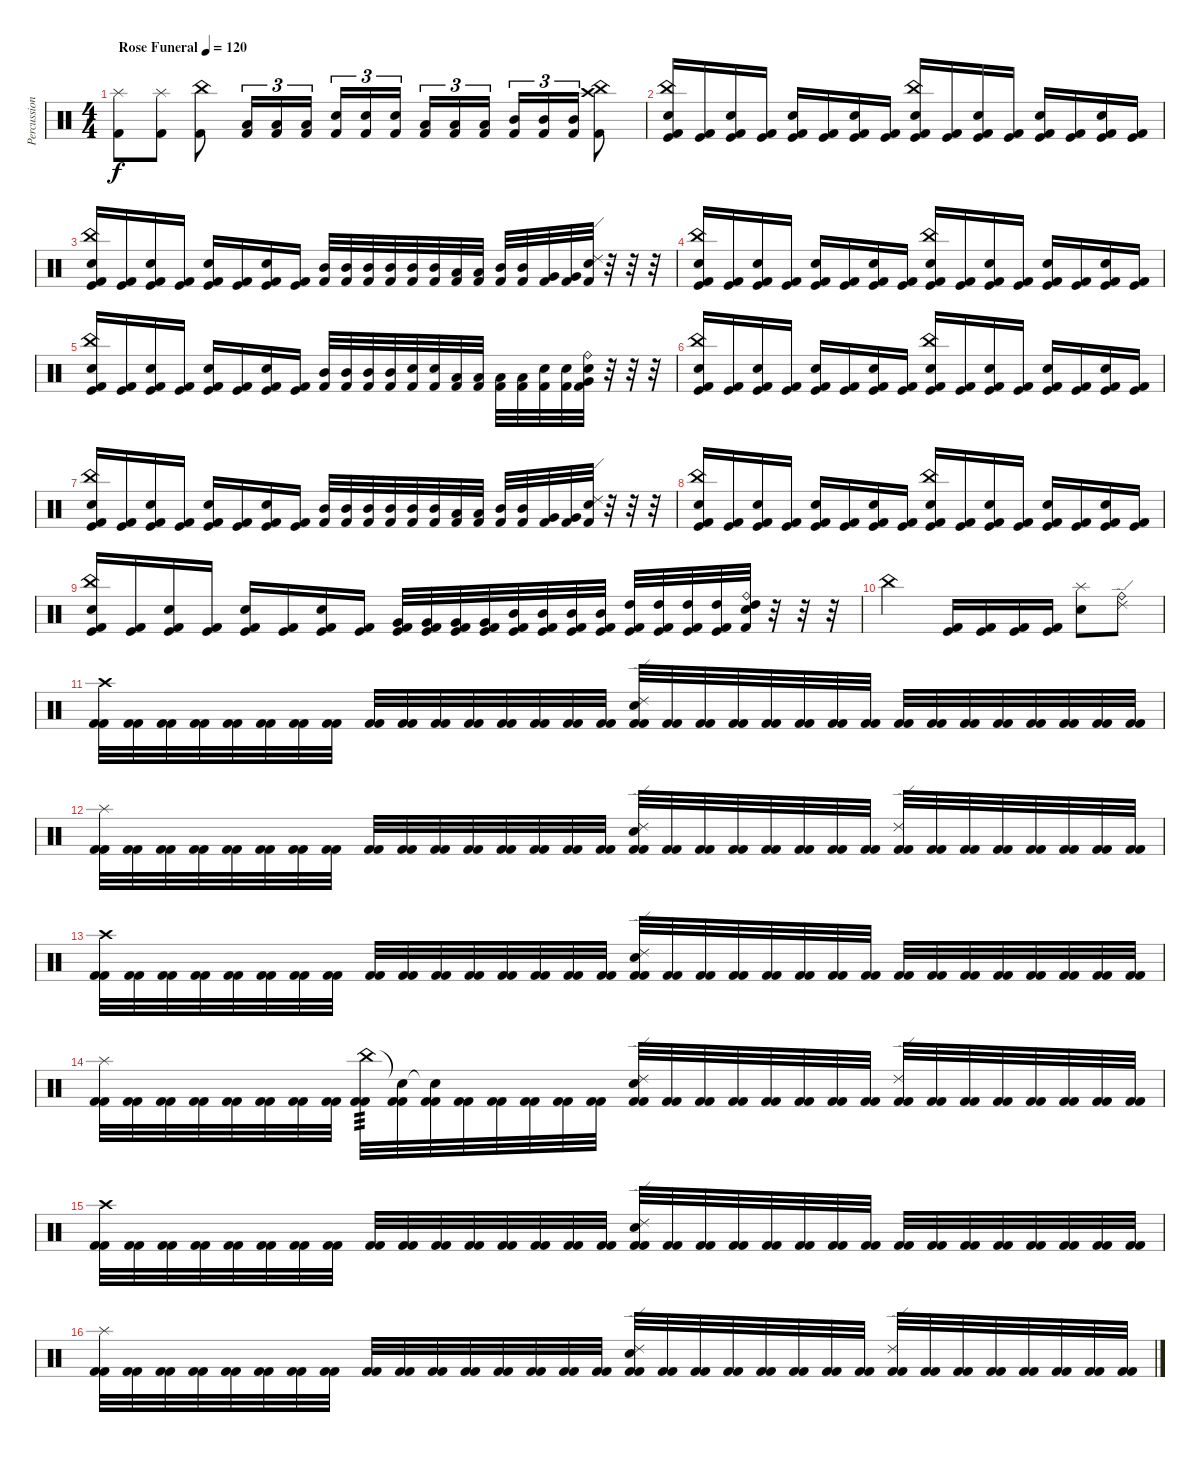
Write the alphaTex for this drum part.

\track ("Percussion" "Percussion") {instrument percussion}
\staff {score}
\articulation defaults
\ts (4 4)
\tempo (120 "Rose Funeral")
\clef neutral
\ks c
("Splash (hit)" "Kick (hit) 2").8{dy f} ("Splash (hit)" "Kick (hit) 2").8 ("China (hit)" "Kick (hit) 2").8 ("Low Tom (hit)" "Kick (hit) 2").16{tu (3 2)} ("Low Tom (hit)" "Kick (hit) 2").16{tu (3 2)} ("Low Tom (hit)" "Kick (hit) 2").16{tu (3 2)} ("Electric Snare (hit)" "Kick (hit) 2").16{tu (3 2)} ("Electric Snare (hit)" "Kick (hit) 2").16{tu (3 2)} ("Electric Snare (hit)" "Kick (hit) 2").16{tu (3 2) beam splitsecondary} ("Low Tom (hit)" "Kick (hit) 2").16{tu (3 2)} ("Low Tom (hit)" "Kick (hit) 2").16{tu (3 2)} ("Low Tom (hit)" "Kick (hit) 2").16{tu (3 2)} ("Mid Tom (hit)" "Kick (hit) 2").16{tu (3 2)} ("Mid Tom (hit)" "Kick (hit) 2").16{tu (3 2)} ("Mid Tom (hit)" "Kick (hit) 2").16{tu (3 2)} ("China (hit)" "Crash high (hit)" "Kick (hit) 2").8 |
("China (hit)" "Electric Snare (hit)" "Kick (hit)" "Kick (hit) 2").16 ("Kick (hit)" "Kick (hit) 2").16 ("Electric Snare (hit)" "Kick (hit)" "Kick (hit) 2").16 ("Kick (hit)" "Kick (hit) 2").16 ("Electric Snare (hit)" "Kick (hit)" "Kick (hit) 2").16 ("Kick (hit)" "Kick (hit) 2").16 ("Electric Snare (hit)" "Kick (hit)" "Kick (hit) 2").16 ("Kick (hit)" "Kick (hit) 2").16 ("China (hit)" "Electric Snare (hit)" "Kick (hit)" "Kick (hit) 2").16 ("Kick (hit)" "Kick (hit) 2").16 ("Electric Snare (hit)" "Kick (hit)" "Kick (hit) 2").16 ("Kick (hit)" "Kick (hit) 2").16 ("Electric Snare (hit)" "Kick (hit)" "Kick (hit) 2").16 ("Kick (hit)" "Kick (hit) 2").16 ("Electric Snare (hit)" "Kick (hit)" "Kick (hit) 2").16 ("Kick (hit)" "Kick (hit) 2").16 |
("China (hit)" "Electric Snare (hit)" "Kick (hit)" "Kick (hit) 2").16 ("Kick (hit)" "Kick (hit) 2").16 ("Electric Snare (hit)" "Kick (hit)" "Kick (hit) 2").16 ("Kick (hit)" "Kick (hit) 2").16 ("Electric Snare (hit)" "Kick (hit)" "Kick (hit) 2").16 ("Kick (hit)" "Kick (hit) 2").16 ("Electric Snare (hit)" "Kick (hit)" "Kick (hit) 2").16 ("Kick (hit)" "Kick (hit) 2").16 ("Mid Tom (hit)" "Kick (hit) 2").32 ("Mid Tom (hit)" "Kick (hit) 2").32 ("Mid Tom (hit)" "Kick (hit) 2").32 ("Mid Tom (hit)" "Kick (hit) 2").32 ("Mid Tom (hit)" "Kick (hit) 2").32 ("Mid Tom (hit)" "Kick (hit) 2").32 ("Low Tom (hit)" "Kick (hit) 2").32 ("Low Tom (hit)" "Kick (hit) 2").32 ("Mid Tom (hit)" "Kick (hit) 2").32 ("Mid Tom (hit)" "Kick (hit) 2").32 ("Very Low Tom (hit)" "Kick (hit) 2").32 ("Very Low Tom (hit)" "Kick (hit) 2").32 ("Ride (edge) 2" "Electric Snare (hit)" "Kick (hit) 2").32 r.32 r.32 r.32 |
("China (hit)" "Electric Snare (hit)" "Kick (hit)" "Kick (hit) 2").16 ("Kick (hit)" "Kick (hit) 2").16 ("Electric Snare (hit)" "Kick (hit)" "Kick (hit) 2").16 ("Kick (hit)" "Kick (hit) 2").16 ("Electric Snare (hit)" "Kick (hit)" "Kick (hit) 2").16 ("Kick (hit)" "Kick (hit) 2").16 ("Electric Snare (hit)" "Kick (hit)" "Kick (hit) 2").16 ("Kick (hit)" "Kick (hit) 2").16 ("China (hit)" "Electric Snare (hit)" "Kick (hit)" "Kick (hit) 2").16 ("Kick (hit)" "Kick (hit) 2").16 ("Electric Snare (hit)" "Kick (hit)" "Kick (hit) 2").16 ("Kick (hit)" "Kick (hit) 2").16 ("Electric Snare (hit)" "Kick (hit)" "Kick (hit) 2").16 ("Kick (hit)" "Kick (hit) 2").16 ("Electric Snare (hit)" "Kick (hit)" "Kick (hit) 2").16 ("Kick (hit)" "Kick (hit) 2").16 |
("China (hit)" "Electric Snare (hit)" "Kick (hit)" "Kick (hit) 2").16 ("Kick (hit)" "Kick (hit) 2").16 ("Electric Snare (hit)" "Kick (hit)" "Kick (hit) 2").16 ("Kick (hit)" "Kick (hit) 2").16 ("Electric Snare (hit)" "Kick (hit)" "Kick (hit) 2").16 ("Kick (hit)" "Kick (hit) 2").16 ("Electric Snare (hit)" "Kick (hit)" "Kick (hit) 2").16 ("Kick (hit)" "Kick (hit) 2").16 ("Mid Tom (hit)" "Kick (hit) 2").32 ("Mid Tom (hit)" "Kick (hit) 2").32 ("Mid Tom (hit)" "Kick (hit) 2").32 ("Mid Tom (hit)" "Kick (hit) 2").32 ("Electric Snare (hit)" "Kick (hit) 2").32 ("Electric Snare (hit)" "Kick (hit) 2").32 ("Low Floor Tom (hit)" "Kick (hit) 2").32 ("Low Floor Tom (hit)" "Kick (hit) 2").32 ("Low Floor Tom (hit)" "Kick (hit) 2").32 ("Low Floor Tom (hit)" "Kick (hit) 2").32 ("Electric Snare (hit)" "Kick (hit) 2").32 ("Electric Snare (hit)" "Kick (hit) 2").32 ("Ride (bell)" "Electric Snare (hit)" "Very Low Tom (hit)" "Kick (hit) 2").32 r.32 r.32 r.32 |
("China (hit)" "Electric Snare (hit)" "Kick (hit)" "Kick (hit) 2").16 ("Kick (hit)" "Kick (hit) 2").16 ("Electric Snare (hit)" "Kick (hit)" "Kick (hit) 2").16 ("Kick (hit)" "Kick (hit) 2").16 ("Electric Snare (hit)" "Kick (hit)" "Kick (hit) 2").16 ("Kick (hit)" "Kick (hit) 2").16 ("Electric Snare (hit)" "Kick (hit)" "Kick (hit) 2").16 ("Kick (hit)" "Kick (hit) 2").16 ("China (hit)" "Electric Snare (hit)" "Kick (hit)" "Kick (hit) 2").16 ("Kick (hit)" "Kick (hit) 2").16 ("Electric Snare (hit)" "Kick (hit)" "Kick (hit) 2").16 ("Kick (hit)" "Kick (hit) 2").16 ("Electric Snare (hit)" "Kick (hit)" "Kick (hit) 2").16 ("Kick (hit)" "Kick (hit) 2").16 ("Electric Snare (hit)" "Kick (hit)" "Kick (hit) 2").16 ("Kick (hit)" "Kick (hit) 2").16 |
("China (hit)" "Electric Snare (hit)" "Kick (hit)" "Kick (hit) 2").16 ("Kick (hit)" "Kick (hit) 2").16 ("Electric Snare (hit)" "Kick (hit)" "Kick (hit) 2").16 ("Kick (hit)" "Kick (hit) 2").16 ("Electric Snare (hit)" "Kick (hit)" "Kick (hit) 2").16 ("Kick (hit)" "Kick (hit) 2").16 ("Electric Snare (hit)" "Kick (hit)" "Kick (hit) 2").16 ("Kick (hit)" "Kick (hit) 2").16 ("Mid Tom (hit)" "Kick (hit) 2").32 ("Mid Tom (hit)" "Kick (hit) 2").32 ("Mid Tom (hit)" "Kick (hit) 2").32 ("Mid Tom (hit)" "Kick (hit) 2").32 ("Mid Tom (hit)" "Kick (hit) 2").32 ("Mid Tom (hit)" "Kick (hit) 2").32 ("Low Tom (hit)" "Kick (hit) 2").32 ("Low Tom (hit)" "Kick (hit) 2").32 ("Mid Tom (hit)" "Kick (hit) 2").32 ("Mid Tom (hit)" "Kick (hit) 2").32 ("Very Low Tom (hit)" "Kick (hit) 2").32 ("Very Low Tom (hit)" "Kick (hit) 2").32 ("Ride (edge) 2" "Electric Snare (hit)" "Kick (hit) 2").32 r.32 r.32 r.32 |
("China (hit)" "Electric Snare (hit)" "Kick (hit)" "Kick (hit) 2").16 ("Kick (hit)" "Kick (hit) 2").16 ("Electric Snare (hit)" "Kick (hit)" "Kick (hit) 2").16 ("Kick (hit)" "Kick (hit) 2").16 ("Electric Snare (hit)" "Kick (hit)" "Kick (hit) 2").16 ("Kick (hit)" "Kick (hit) 2").16 ("Electric Snare (hit)" "Kick (hit)" "Kick (hit) 2").16 ("Kick (hit)" "Kick (hit) 2").16 ("China (hit)" "Electric Snare (hit)" "Kick (hit)" "Kick (hit) 2").16 ("Kick (hit)" "Kick (hit) 2").16 ("Electric Snare (hit)" "Kick (hit)" "Kick (hit) 2").16 ("Kick (hit)" "Kick (hit) 2").16 ("Electric Snare (hit)" "Kick (hit)" "Kick (hit) 2").16 ("Kick (hit)" "Kick (hit) 2").16 ("Electric Snare (hit)" "Kick (hit)" "Kick (hit) 2").16 ("Kick (hit)" "Kick (hit) 2").16 |
("China (hit)" "Electric Snare (hit)" "Kick (hit)" "Kick (hit) 2").16 ("Kick (hit)" "Kick (hit) 2").16 ("Electric Snare (hit)" "Kick (hit)" "Kick (hit) 2").16 ("Kick (hit)" "Kick (hit) 2").16 ("Electric Snare (hit)" "Kick (hit)" "Kick (hit) 2").16 ("Kick (hit)" "Kick (hit) 2").16 ("Electric Snare (hit)" "Kick (hit)" "Kick (hit) 2").16 ("Kick (hit)" "Kick (hit) 2").16 ("Kick (hit)" "Very Low Tom (hit)" "Kick (hit) 2").32 ("Kick (hit)" "Very Low Tom (hit)" "Kick (hit) 2").32 ("Kick (hit)" "Very Low Tom (hit)" "Kick (hit) 2").32 ("Kick (hit)" "Very Low Tom (hit)" "Kick (hit) 2").32 ("Kick (hit)" "Mid Tom (hit)" "Kick (hit) 2").32 ("Kick (hit)" "Mid Tom (hit)" "Kick (hit) 2").32 ("Kick (hit)" "Mid Tom (hit)" "Kick (hit) 2").32 ("Kick (hit)" "Mid Tom (hit)" "Kick (hit) 2").32 ("Kick (hit)" "High Tom (hit)" "Kick (hit) 2").32 ("Kick (hit)" "High Tom (hit)" "Kick (hit) 2").32 ("Kick (hit)" "High Tom (hit)" "Kick (hit) 2").32 ("Kick (hit)" "High Tom (hit)" "Kick (hit) 2").32 ("Ride (bell)" "Electric Snare (hit)" "High Tom (hit)" "Kick (hit) 2").32 r.32 r.32 r.32 |
"China (hit)".2 ("Kick (hit)" "Kick (hit) 2").16 ("Kick (hit)" "Kick (hit) 2").16 ("Kick (hit)" "Kick (hit) 2").16 ("Kick (hit)" "Kick (hit) 2").16 ("Splash (hit)" "Electric Snare (hit)").8 ("Ride (bell)" "Ride (edge) 2").8 |
("Crash high (hit)" "Kick (hit) 2" "Kick (hit) 2").32 ("Kick (hit) 2" "Kick (hit) 2").32 ("Kick (hit) 2" "Kick (hit) 2").32 ("Kick (hit) 2" "Kick (hit) 2").32 ("Kick (hit) 2" "Kick (hit) 2").32 ("Kick (hit) 2" "Kick (hit) 2").32 ("Kick (hit) 2" "Kick (hit) 2").32 ("Kick (hit) 2" "Kick (hit) 2").32 ("Kick (hit) 2" "Kick (hit) 2").32 ("Kick (hit) 2" "Kick (hit) 2").32 ("Kick (hit) 2" "Kick (hit) 2").32 ("Kick (hit) 2" "Kick (hit) 2").32 ("Kick (hit) 2" "Kick (hit) 2").32 ("Kick (hit) 2" "Kick (hit) 2").32 ("Kick (hit) 2" "Kick (hit) 2").32 ("Kick (hit) 2" "Kick (hit) 2").32 ("Ride (edge) 2" "Electric Snare (hit)" "Kick (hit) 2" "Kick (hit) 2").32 ("Kick (hit) 2" "Kick (hit) 2").32 ("Kick (hit) 2" "Kick (hit) 2").32 ("Kick (hit) 2" "Kick (hit) 2").32 ("Kick (hit) 2" "Kick (hit) 2").32 ("Kick (hit) 2" "Kick (hit) 2").32 ("Kick (hit) 2" "Kick (hit) 2").32 ("Kick (hit) 2" "Kick (hit) 2").32 ("Kick (hit) 2" "Kick (hit) 2").32 ("Kick (hit) 2" "Kick (hit) 2").32 ("Kick (hit) 2" "Kick (hit) 2").32 ("Kick (hit) 2" "Kick (hit) 2").32 ("Kick (hit) 2" "Kick (hit) 2").32 ("Kick (hit) 2" "Kick (hit) 2").32 ("Kick (hit) 2" "Kick (hit) 2").32 ("Kick (hit) 2" "Kick (hit) 2").32 |
("Splash (hit)" "Kick (hit) 2" "Kick (hit) 2").32 ("Kick (hit) 2" "Kick (hit) 2").32 ("Kick (hit) 2" "Kick (hit) 2").32 ("Kick (hit) 2" "Kick (hit) 2").32 ("Kick (hit) 2" "Kick (hit) 2").32 ("Kick (hit) 2" "Kick (hit) 2").32 ("Kick (hit) 2" "Kick (hit) 2").32 ("Kick (hit) 2" "Kick (hit) 2").32 ("Kick (hit) 2" "Kick (hit) 2").32 ("Kick (hit) 2" "Kick (hit) 2").32 ("Kick (hit) 2" "Kick (hit) 2").32 ("Kick (hit) 2" "Kick (hit) 2").32 ("Kick (hit) 2" "Kick (hit) 2").32 ("Kick (hit) 2" "Kick (hit) 2").32 ("Kick (hit) 2" "Kick (hit) 2").32 ("Kick (hit) 2" "Kick (hit) 2").32 ("Ride (edge) 2" "Electric Snare (hit)" "Kick (hit) 2" "Kick (hit) 2").32 ("Kick (hit) 2" "Kick (hit) 2").32 ("Kick (hit) 2" "Kick (hit) 2").32 ("Kick (hit) 2" "Kick (hit) 2").32 ("Kick (hit) 2" "Kick (hit) 2").32 ("Kick (hit) 2" "Kick (hit) 2").32 ("Kick (hit) 2" "Kick (hit) 2").32 ("Kick (hit) 2" "Kick (hit) 2").32 ("Ride (edge) 2" "Kick (hit) 2" "Kick (hit) 2").32 ("Kick (hit) 2" "Kick (hit) 2").32 ("Kick (hit) 2" "Kick (hit) 2").32 ("Kick (hit) 2" "Kick (hit) 2").32 ("Kick (hit) 2" "Kick (hit) 2").32 ("Kick (hit) 2" "Kick (hit) 2").32 ("Kick (hit) 2" "Kick (hit) 2").32 ("Kick (hit) 2" "Kick (hit) 2").32 |
("Crash high (hit)" "Kick (hit) 2" "Kick (hit) 2").32 ("Kick (hit) 2" "Kick (hit) 2").32 ("Kick (hit) 2" "Kick (hit) 2").32 ("Kick (hit) 2" "Kick (hit) 2").32 ("Kick (hit) 2" "Kick (hit) 2").32 ("Kick (hit) 2" "Kick (hit) 2").32 ("Kick (hit) 2" "Kick (hit) 2").32 ("Kick (hit) 2" "Kick (hit) 2").32 ("Kick (hit) 2" "Kick (hit) 2").32 ("Kick (hit) 2" "Kick (hit) 2").32 ("Kick (hit) 2" "Kick (hit) 2").32 ("Kick (hit) 2" "Kick (hit) 2").32 ("Kick (hit) 2" "Kick (hit) 2").32 ("Kick (hit) 2" "Kick (hit) 2").32 ("Kick (hit) 2" "Kick (hit) 2").32 ("Kick (hit) 2" "Kick (hit) 2").32 ("Ride (edge) 2" "Electric Snare (hit)" "Kick (hit) 2" "Kick (hit) 2").32 ("Kick (hit) 2" "Kick (hit) 2").32 ("Kick (hit) 2" "Kick (hit) 2").32 ("Kick (hit) 2" "Kick (hit) 2").32 ("Kick (hit) 2" "Kick (hit) 2").32 ("Kick (hit) 2" "Kick (hit) 2").32 ("Kick (hit) 2" "Kick (hit) 2").32 ("Kick (hit) 2" "Kick (hit) 2").32 ("Kick (hit) 2" "Kick (hit) 2").32 ("Kick (hit) 2" "Kick (hit) 2").32 ("Kick (hit) 2" "Kick (hit) 2").32 ("Kick (hit) 2" "Kick (hit) 2").32 ("Kick (hit) 2" "Kick (hit) 2").32 ("Kick (hit) 2" "Kick (hit) 2").32 ("Kick (hit) 2" "Kick (hit) 2").32 ("Kick (hit) 2" "Kick (hit) 2").32 |
("Splash (hit)" "Kick (hit) 2" "Kick (hit) 2").32 ("Kick (hit) 2" "Kick (hit) 2").32 ("Kick (hit) 2" "Kick (hit) 2").32 ("Kick (hit) 2" "Kick (hit) 2").32 ("Kick (hit) 2" "Kick (hit) 2").32 ("Kick (hit) 2" "Kick (hit) 2").32 ("Kick (hit) 2" "Kick (hit) 2").32 ("Kick (hit) 2" "Kick (hit) 2").32 ("China (hit)" "Kick (hit) 2" "Kick (hit) 2").32{tp 3} ("Snare (hit)"{t} "Kick (hit) 2" "Kick (hit) 2").32 ("Snare (hit)"{t} "Kick (hit) 2" "Kick (hit) 2").32 ("Kick (hit) 2" "Kick (hit) 2").32 ("Kick (hit) 2" "Kick (hit) 2").32 ("Kick (hit) 2" "Kick (hit) 2").32 ("Kick (hit) 2" "Kick (hit) 2").32 ("Kick (hit) 2" "Kick (hit) 2").32 ("Ride (edge) 2" "Electric Snare (hit)" "Kick (hit) 2" "Kick (hit) 2").32 ("Kick (hit) 2" "Kick (hit) 2").32 ("Kick (hit) 2" "Kick (hit) 2").32 ("Kick (hit) 2" "Kick (hit) 2").32 ("Kick (hit) 2" "Kick (hit) 2").32 ("Kick (hit) 2" "Kick (hit) 2").32 ("Kick (hit) 2" "Kick (hit) 2").32 ("Kick (hit) 2" "Kick (hit) 2").32 ("Ride (edge) 2" "Kick (hit) 2" "Kick (hit) 2").32 ("Kick (hit) 2" "Kick (hit) 2").32 ("Kick (hit) 2" "Kick (hit) 2").32 ("Kick (hit) 2" "Kick (hit) 2").32 ("Kick (hit) 2" "Kick (hit) 2").32 ("Kick (hit) 2" "Kick (hit) 2").32 ("Kick (hit) 2" "Kick (hit) 2").32 ("Kick (hit) 2" "Kick (hit) 2").32 |
("Crash high (hit)" "Kick (hit) 2" "Kick (hit) 2").32 ("Kick (hit) 2" "Kick (hit) 2").32 ("Kick (hit) 2" "Kick (hit) 2").32 ("Kick (hit) 2" "Kick (hit) 2").32 ("Kick (hit) 2" "Kick (hit) 2").32 ("Kick (hit) 2" "Kick (hit) 2").32 ("Kick (hit) 2" "Kick (hit) 2").32 ("Kick (hit) 2" "Kick (hit) 2").32 ("Kick (hit) 2" "Kick (hit) 2").32 ("Kick (hit) 2" "Kick (hit) 2").32 ("Kick (hit) 2" "Kick (hit) 2").32 ("Kick (hit) 2" "Kick (hit) 2").32 ("Kick (hit) 2" "Kick (hit) 2").32 ("Kick (hit) 2" "Kick (hit) 2").32 ("Kick (hit) 2" "Kick (hit) 2").32 ("Kick (hit) 2" "Kick (hit) 2").32 ("Ride (edge) 2" "Electric Snare (hit)" "Kick (hit) 2" "Kick (hit) 2").32 ("Kick (hit) 2" "Kick (hit) 2").32 ("Kick (hit) 2" "Kick (hit) 2").32 ("Kick (hit) 2" "Kick (hit) 2").32 ("Kick (hit) 2" "Kick (hit) 2").32 ("Kick (hit) 2" "Kick (hit) 2").32 ("Kick (hit) 2" "Kick (hit) 2").32 ("Kick (hit) 2" "Kick (hit) 2").32 ("Kick (hit) 2" "Kick (hit) 2").32 ("Kick (hit) 2" "Kick (hit) 2").32 ("Kick (hit) 2" "Kick (hit) 2").32 ("Kick (hit) 2" "Kick (hit) 2").32 ("Kick (hit) 2" "Kick (hit) 2").32 ("Kick (hit) 2" "Kick (hit) 2").32 ("Kick (hit) 2" "Kick (hit) 2").32 ("Kick (hit) 2" "Kick (hit) 2").32 |
("Splash (hit)" "Kick (hit) 2" "Kick (hit) 2").32 ("Kick (hit) 2" "Kick (hit) 2").32 ("Kick (hit) 2" "Kick (hit) 2").32 ("Kick (hit) 2" "Kick (hit) 2").32 ("Kick (hit) 2" "Kick (hit) 2").32 ("Kick (hit) 2" "Kick (hit) 2").32 ("Kick (hit) 2" "Kick (hit) 2").32 ("Kick (hit) 2" "Kick (hit) 2").32 ("Kick (hit) 2" "Kick (hit) 2").32 ("Kick (hit) 2" "Kick (hit) 2").32 ("Kick (hit) 2" "Kick (hit) 2").32 ("Kick (hit) 2" "Kick (hit) 2").32 ("Kick (hit) 2" "Kick (hit) 2").32 ("Kick (hit) 2" "Kick (hit) 2").32 ("Kick (hit) 2" "Kick (hit) 2").32 ("Kick (hit) 2" "Kick (hit) 2").32 ("Ride (edge) 2" "Electric Snare (hit)" "Kick (hit) 2" "Kick (hit) 2").32 ("Kick (hit) 2" "Kick (hit) 2").32 ("Kick (hit) 2" "Kick (hit) 2").32 ("Kick (hit) 2" "Kick (hit) 2").32 ("Kick (hit) 2" "Kick (hit) 2").32 ("Kick (hit) 2" "Kick (hit) 2").32 ("Kick (hit) 2" "Kick (hit) 2").32 ("Kick (hit) 2" "Kick (hit) 2").32 ("Ride (edge) 2" "Kick (hit) 2" "Kick (hit) 2").32 ("Kick (hit) 2" "Kick (hit) 2").32 ("Kick (hit) 2" "Kick (hit) 2").32 ("Kick (hit) 2" "Kick (hit) 2").32 ("Kick (hit) 2" "Kick (hit) 2").32 ("Kick (hit) 2" "Kick (hit) 2").32 ("Kick (hit) 2" "Kick (hit) 2").32 ("Kick (hit) 2" "Kick (hit) 2").32
